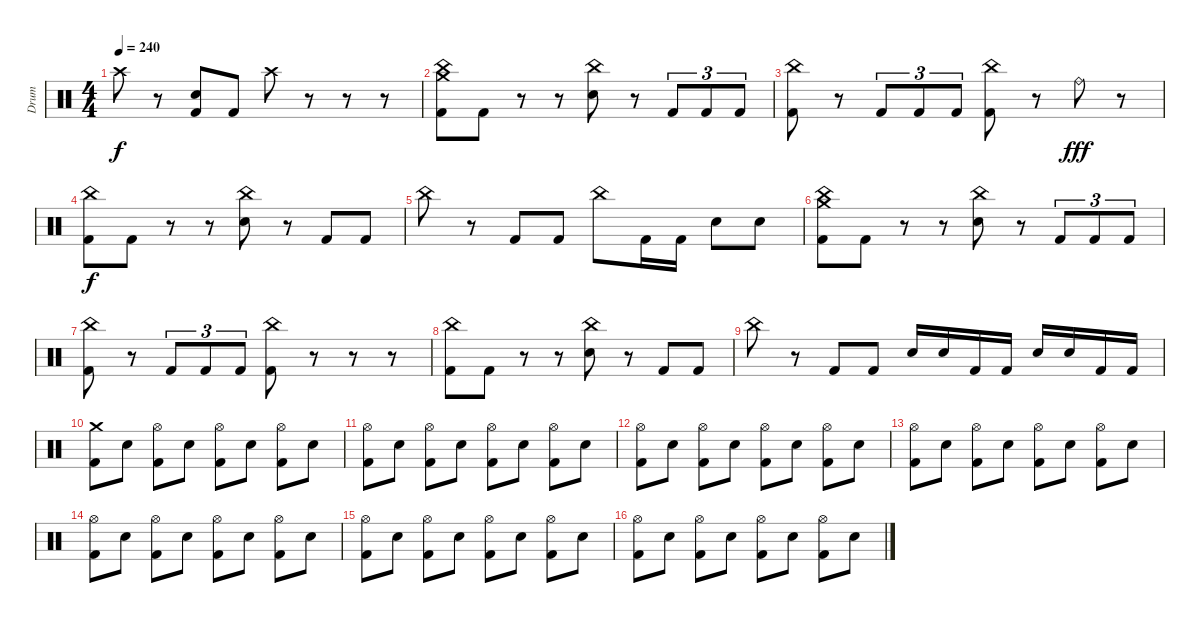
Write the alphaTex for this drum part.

\track ("Drum" "Drum") {instrument percussion}
\staff {score}
\articulation defaults
\ts (4 4)
\tempo 240
\clef neutral
\ks c "Crash high (hit)".8{dy f}
r.8 ("Electric Snare (hit)" "Kick (hit) 2").8 "Kick (hit) 2".8 "Crash high (hit)".8 r.8 r.8 r.8 |
("Crash medium (hit)" "China (hit)" "Kick (hit) 2").8 "Kick (hit) 2".8 r.8 r.8 ("China (hit)" "Electric Snare (hit)").8 r.8 "Kick (hit) 2".8{tu (3 2)} "Kick (hit) 2".8{tu (3 2)} "Kick (hit) 2".8{tu (3 2)} |
("China (hit)" "Kick (hit) 2").8 r.8 "Kick (hit) 2".8{tu (3 2)} "Kick (hit) 2".8{tu (3 2)} "Kick (hit) 2".8{tu (3 2)} ("China (hit)" "Kick (hit) 2").8 r.8 "Ride (bell)".8{dy fff} r.8 |
("China (hit)" "Kick (hit) 2").8{dy f} "Kick (hit) 2".8 r.8 r.8 ("China (hit)" "Electric Snare (hit)").8 r.8 "Kick (hit) 2".8 "Kick (hit) 2".8 |
"China (hit)".8 r.8 "Kick (hit) 2".8 "Kick (hit) 2".8 "China (hit)".8 "Kick (hit) 2".16 "Kick (hit) 2".16 "Electric Snare (hit)".8 "Electric Snare (hit)".8 |
("Crash medium (hit)" "China (hit)" "Kick (hit) 2").8 "Kick (hit) 2".8 r.8 r.8 ("China (hit)" "Electric Snare (hit)").8 r.8 "Kick (hit) 2".8{tu (3 2)} "Kick (hit) 2".8{tu (3 2)} "Kick (hit) 2".8{tu (3 2)} |
("China (hit)" "Kick (hit) 2").8 r.8 "Kick (hit) 2".8{tu (3 2)} "Kick (hit) 2".8{tu (3 2)} "Kick (hit) 2".8{tu (3 2)} ("China (hit)" "Kick (hit) 2").8 r.8 r.8 r.8 |
("China (hit)" "Kick (hit) 2").8 "Kick (hit) 2".8 r.8 r.8 ("China (hit)" "Electric Snare (hit)").8 r.8 "Kick (hit) 2".8 "Kick (hit) 2".8 |
"China (hit)".8 r.8 "Kick (hit) 2".8 "Kick (hit) 2".8 "Electric Snare (hit)".16 "Electric Snare (hit)".16 "Kick (hit) 2".16 "Kick (hit) 2".16 "Electric Snare (hit)".16 "Electric Snare (hit)".16 "Kick (hit) 2".16 "Kick (hit) 2".16 |
("Crash medium (hit)" "Kick (hit) 2").8 "Electric Snare (hit)".8 ("Hi-Hat (open)" "Kick (hit) 2").8 "Electric Snare (hit)".8 ("Hi-Hat (open)" "Kick (hit) 2").8 "Electric Snare (hit)".8 ("Hi-Hat (open)" "Kick (hit) 2").8 "Electric Snare (hit)".8 |
("Hi-Hat (open)" "Kick (hit) 2").8 "Electric Snare (hit)".8 ("Hi-Hat (open)" "Kick (hit) 2").8 "Electric Snare (hit)".8 ("Hi-Hat (open)" "Kick (hit) 2").8 "Electric Snare (hit)".8 ("Hi-Hat (open)" "Kick (hit) 2").8 "Electric Snare (hit)".8 |
("Hi-Hat (open)" "Kick (hit) 2").8 "Electric Snare (hit)".8 ("Hi-Hat (open)" "Kick (hit) 2").8 "Electric Snare (hit)".8 ("Hi-Hat (open)" "Kick (hit) 2").8 "Electric Snare (hit)".8 ("Hi-Hat (open)" "Kick (hit) 2").8 "Electric Snare (hit)".8 |
("Hi-Hat (open)" "Kick (hit) 2").8 "Electric Snare (hit)".8 ("Hi-Hat (open)" "Kick (hit) 2").8 "Electric Snare (hit)".8 ("Hi-Hat (open)" "Kick (hit) 2").8 "Electric Snare (hit)".8 ("Hi-Hat (open)" "Kick (hit) 2").8 "Electric Snare (hit)".8 |
("Hi-Hat (open)" "Kick (hit) 2").8 "Electric Snare (hit)".8 ("Hi-Hat (open)" "Kick (hit) 2").8 "Electric Snare (hit)".8 ("Hi-Hat (open)" "Kick (hit) 2").8 "Electric Snare (hit)".8 ("Hi-Hat (open)" "Kick (hit) 2").8 "Electric Snare (hit)".8 |
("Hi-Hat (open)" "Kick (hit) 2").8 "Electric Snare (hit)".8 ("Hi-Hat (open)" "Kick (hit) 2").8 "Electric Snare (hit)".8 ("Hi-Hat (open)" "Kick (hit) 2").8 "Electric Snare (hit)".8 ("Hi-Hat (open)" "Kick (hit) 2").8 "Electric Snare (hit)".8 |
("Hi-Hat (open)" "Kick (hit) 2").8 "Electric Snare (hit)".8 ("Hi-Hat (open)" "Kick (hit) 2").8 "Electric Snare (hit)".8 ("Hi-Hat (open)" "Kick (hit) 2").8 "Electric Snare (hit)".8 ("Hi-Hat (open)" "Kick (hit) 2").8 "Electric Snare (hit)".8
